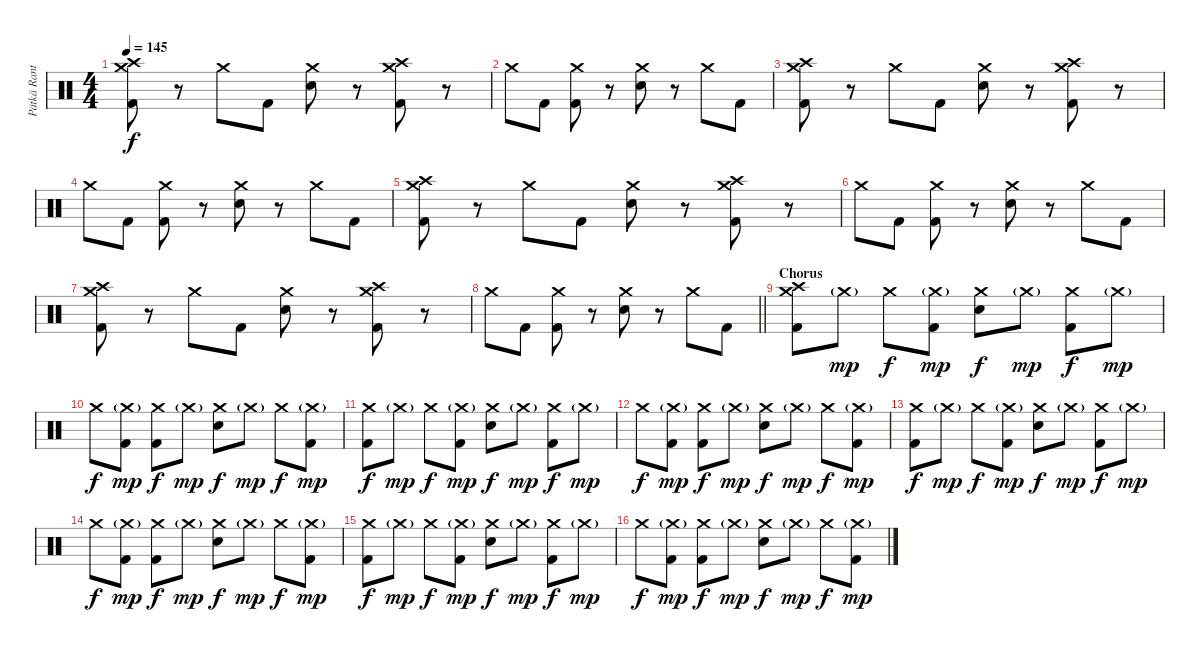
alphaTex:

\track ("Pätkä Rantala (Drums)" "Pätkä Rant") {instrument percussion}
\staff {score}
\articulation defaults
\ts (4 4)
\tempo 145
\clef neutral
\ks c
("Crash high (hit)" "Crash medium (hit)" "Kick (hit) 2").8{dy f} r.8 "Crash medium (hit)".8 "Kick (hit) 2".8 ("Crash medium (hit)" "Snare (hit) 2").8 r.8 ("Crash high (hit)" "Crash medium (hit)" "Kick (hit) 2").8 r.8 |
"Crash medium (hit)".8 "Kick (hit) 2".8 ("Crash medium (hit)" "Kick (hit) 2").8 r.8 ("Crash medium (hit)" "Snare (hit) 2").8 r.8 "Crash medium (hit)".8 "Kick (hit) 2".8 |
("Crash high (hit)" "Crash medium (hit)" "Kick (hit) 2").8 r.8 "Crash medium (hit)".8 "Kick (hit) 2".8 ("Crash medium (hit)" "Snare (hit) 2").8 r.8 ("Crash high (hit)" "Crash medium (hit)" "Kick (hit) 2").8 r.8 |
"Crash medium (hit)".8 "Kick (hit) 2".8 ("Crash medium (hit)" "Kick (hit) 2").8 r.8 ("Crash medium (hit)" "Snare (hit) 2").8 r.8 "Crash medium (hit)".8 "Kick (hit) 2".8 |
("Crash high (hit)" "Crash medium (hit)" "Kick (hit) 2").8 r.8 "Crash medium (hit)".8 "Kick (hit) 2".8 ("Crash medium (hit)" "Snare (hit) 2").8 r.8 ("Crash high (hit)" "Crash medium (hit)" "Kick (hit) 2").8 r.8 |
"Crash medium (hit)".8 "Kick (hit) 2".8 ("Crash medium (hit)" "Kick (hit) 2").8 r.8 ("Crash medium (hit)" "Snare (hit) 2").8 r.8 "Crash medium (hit)".8 "Kick (hit) 2".8 |
("Crash high (hit)" "Crash medium (hit)" "Kick (hit) 2").8 r.8 "Crash medium (hit)".8 "Kick (hit) 2".8 ("Crash medium (hit)" "Snare (hit) 2").8 r.8 ("Crash high (hit)" "Crash medium (hit)" "Kick (hit) 2").8 r.8 |
\barLineRight lightlight "Crash medium (hit)".8 "Kick (hit) 2".8
("Crash medium (hit)" "Kick (hit) 2").8 r.8 ("Crash medium (hit)" "Snare (hit) 2").8 r.8 "Crash medium (hit)".8 "Kick (hit) 2".8 |
\section ("" "Chorus")
("Crash high (hit)" "Crash medium (hit)" "Kick (hit) 2").8 "Crash medium (hit)"{g}.8{dy mp} "Crash medium (hit)".8{dy f} ("Crash medium (hit)"{g} "Kick (hit) 2").8{dy mp} ("Crash medium (hit)" "Snare (hit) 2").8{dy f} "Crash medium (hit)"{g}.8{dy mp} ("Crash medium (hit)" "Kick (hit) 2").8{dy f} "Crash medium (hit)"{g}.8{dy mp} |
"Crash medium (hit)".8{dy f} ("Crash medium (hit)"{g} "Kick (hit) 2").8{dy mp} ("Crash medium (hit)" "Kick (hit) 2").8{dy f} "Crash medium (hit)"{g}.8{dy mp} ("Crash medium (hit)" "Snare (hit) 2").8{dy f} "Crash medium (hit)"{g}.8{dy mp} "Crash medium (hit)".8{dy f} ("Crash medium (hit)"{g} "Kick (hit) 2").8{dy mp} |
("Crash medium (hit)" "Kick (hit) 2").8{dy f} "Crash medium (hit)"{g}.8{dy mp} "Crash medium (hit)".8{dy f} ("Crash medium (hit)"{g} "Kick (hit) 2").8{dy mp} ("Crash medium (hit)" "Snare (hit) 2").8{dy f} "Crash medium (hit)"{g}.8{dy mp} ("Crash medium (hit)" "Kick (hit) 2").8{dy f} "Crash medium (hit)"{g}.8{dy mp} |
"Crash medium (hit)".8{dy f} ("Crash medium (hit)"{g} "Kick (hit) 2").8{dy mp} ("Crash medium (hit)" "Kick (hit) 2").8{dy f} "Crash medium (hit)"{g}.8{dy mp} ("Crash medium (hit)" "Snare (hit) 2").8{dy f} "Crash medium (hit)"{g}.8{dy mp} "Crash medium (hit)".8{dy f} ("Crash medium (hit)"{g} "Kick (hit) 2").8{dy mp} |
("Crash medium (hit)" "Kick (hit) 2").8{dy f} "Crash medium (hit)"{g}.8{dy mp} "Crash medium (hit)".8{dy f} ("Crash medium (hit)"{g} "Kick (hit) 2").8{dy mp} ("Crash medium (hit)" "Snare (hit) 2").8{dy f} "Crash medium (hit)"{g}.8{dy mp} ("Crash medium (hit)" "Kick (hit) 2").8{dy f} "Crash medium (hit)"{g}.8{dy mp} |
"Crash medium (hit)".8{dy f} ("Crash medium (hit)"{g} "Kick (hit) 2").8{dy mp} ("Crash medium (hit)" "Kick (hit) 2").8{dy f} "Crash medium (hit)"{g}.8{dy mp} ("Crash medium (hit)" "Snare (hit) 2").8{dy f} "Crash medium (hit)"{g}.8{dy mp} "Crash medium (hit)".8{dy f} ("Crash medium (hit)"{g} "Kick (hit) 2").8{dy mp} |
("Crash medium (hit)" "Kick (hit) 2").8{dy f} "Crash medium (hit)"{g}.8{dy mp} "Crash medium (hit)".8{dy f} ("Crash medium (hit)"{g} "Kick (hit) 2").8{dy mp} ("Crash medium (hit)" "Snare (hit) 2").8{dy f} "Crash medium (hit)"{g}.8{dy mp} ("Crash medium (hit)" "Kick (hit) 2").8{dy f} "Crash medium (hit)"{g}.8{dy mp} |
"Crash medium (hit)".8{dy f} ("Crash medium (hit)"{g} "Kick (hit) 2").8{dy mp} ("Crash medium (hit)" "Kick (hit) 2").8{dy f} "Crash medium (hit)"{g}.8{dy mp} ("Crash medium (hit)" "Snare (hit) 2").8{dy f} "Crash medium (hit)"{g}.8{dy mp} "Crash medium (hit)".8{dy f} ("Crash medium (hit)"{g} "Kick (hit) 2").8{dy mp}
